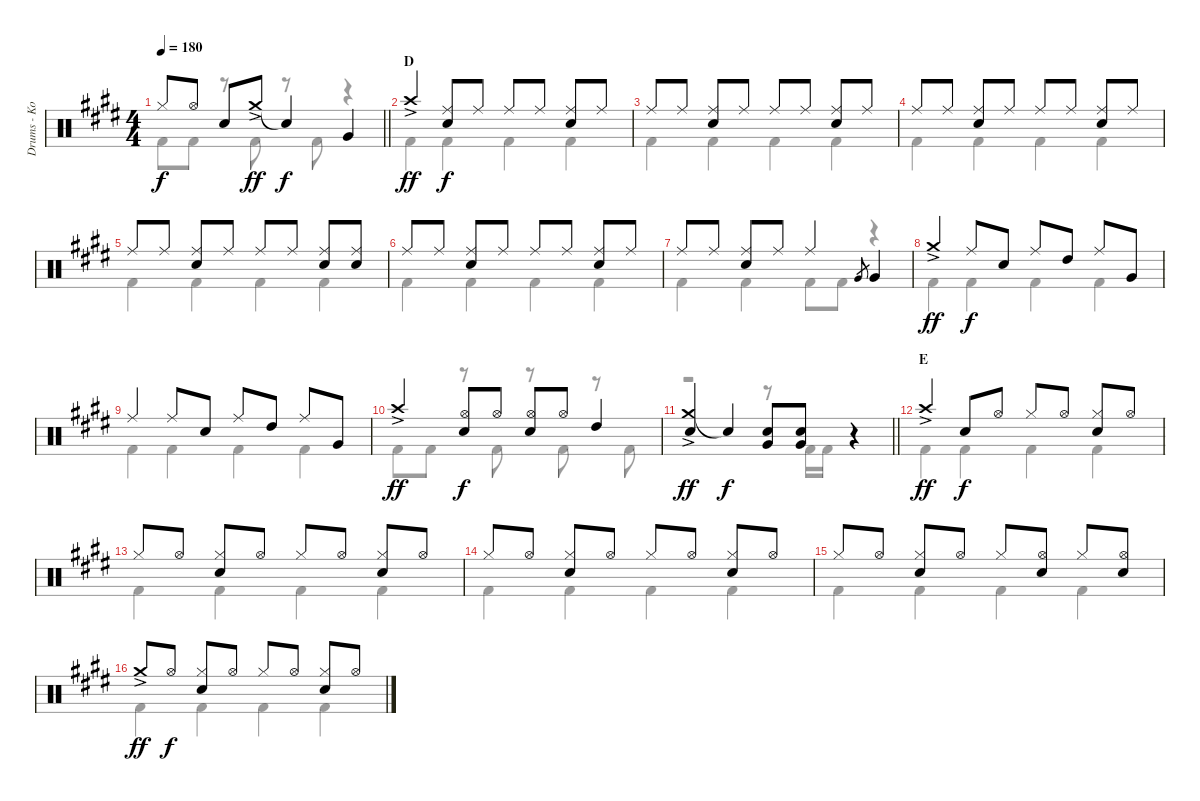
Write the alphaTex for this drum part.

\track ("Drums - Ko-Ki" "Drums - Ko") {instrument percussion}
\staff {score}
\articulation defaults
\voice
\ts (4 4)
\tempo 180
\clef neutral
\barLineRight lightlight
\ks e "Hi-Hat (closed)".8{dy f} "Hi-Hat (open)".8 "Snare (hit) 2".8 "Crash medium (hit)"{ac}.8{dy ff} "Snare (hit)"{t}.4{dy f} "Very Low Tom (hit)".4
|
\section ("" "D")
"Crash high (hit)"{ac}.4{dy ff} ("Ride (middle)" "Snare (hit) 2").8{dy f} "Ride (middle)".8 "Ride (middle)".8 "Ride (middle)".8 ("Ride (middle)" "Snare (hit) 2").8 "Ride (middle)".8 |
"Ride (middle)".8 "Ride (middle)".8 ("Ride (middle)" "Snare (hit) 2").8 "Ride (middle)".8 "Ride (middle)".8 "Ride (middle)".8 ("Ride (middle)" "Snare (hit) 2").8 "Ride (middle)".8 |
"Ride (middle)".8 "Ride (middle)".8 ("Ride (middle)" "Snare (hit) 2").8 "Ride (middle)".8 "Ride (middle)".8 "Ride (middle)".8 ("Ride (middle)" "Snare (hit) 2").8 "Ride (middle)".8 |
"Ride (middle)".8 "Ride (middle)".8 ("Ride (middle)" "Snare (hit) 2").8 "Ride (middle)".8 "Ride (middle)".8 "Ride (middle)".8 ("Ride (middle)" "Snare (hit) 2").8 ("Ride (middle)" "Snare (hit) 2").8 |
"Ride (middle)".8 "Ride (middle)".8 ("Ride (middle)" "Snare (hit) 2").8 "Ride (middle)".8 "Ride (middle)".8 "Ride (middle)".8 ("Ride (middle)" "Snare (hit) 2").8 "Ride (middle)".8 |
"Ride (middle)".8 "Ride (middle)".8 ("Ride (middle)" "Snare (hit) 2").8 "Ride (middle)".8 "Ride (middle)".4 "Very Low Tom (hit)".8{gr} "Very Low Tom (hit)".4 |
"Crash medium (hit)"{ac}.4{dy ff} "Ride (middle)".8{dy f} "Snare (hit) 2".8 "Ride (middle)".8 "High Tom (hit)".8 "Ride (middle)".8 "Very Low Tom (hit)".8 |
"Ride (middle)".4 "Ride (middle)".8 "Snare (hit) 2".8 "Ride (middle)".8 "High Tom (hit)".8 "Ride (middle)".8 "Very Low Tom (hit)".8 |
"Crash high (hit)"{ac}.4{dy ff} ("Hi-Hat (open)" "Snare (hit) 2").8{dy f} "Hi-Hat (open)".8 ("Hi-Hat (open)" "Snare (hit) 2").8 "Hi-Hat (open)".8 "High Tom (hit)".4 |
\barLineRight lightlight
("Crash medium (hit)"{ac} "Snare (hit) 2").4{dy ff} "Snare (hit)"{t}.4{dy f} ("Very Low Tom (hit)" "Snare (hit) 2").8 ("Very Low Tom (hit)" "Snare (hit) 2").8 r.4 |
\section ("" "E")
"Crash high (hit)"{ac}.4{dy ff} "Snare (hit) 2".8{dy f} "Hi-Hat (open)".8 "Hi-Hat (closed)".8 "Hi-Hat (open)".8 ("Hi-Hat (closed)" "Snare (hit) 2").8 "Hi-Hat (open)".8 |
"Hi-Hat (closed)".8 "Hi-Hat (open)".8 ("Hi-Hat (closed)" "Snare (hit) 2").8 "Hi-Hat (open)".8 "Hi-Hat (closed)".8 "Hi-Hat (open)".8 ("Hi-Hat (closed)" "Snare (hit) 2").8 "Hi-Hat (open)".8 |
"Hi-Hat (closed)".8 "Hi-Hat (open)".8 ("Hi-Hat (closed)" "Snare (hit) 2").8 "Hi-Hat (open)".8 "Hi-Hat (closed)".8 "Hi-Hat (open)".8 ("Hi-Hat (closed)" "Snare (hit) 2").8 "Hi-Hat (open)".8 |
"Hi-Hat (closed)".8 "Hi-Hat (open)".8 ("Hi-Hat (closed)" "Snare (hit) 2").8 "Hi-Hat (open)".8 "Hi-Hat (closed)".8 ("Hi-Hat (open)" "Snare (hit) 2").8 "Hi-Hat (closed)".8 ("Hi-Hat (open)" "Snare (hit) 2").8 |
"Crash medium (hit)"{ac}.8{dy ff} "Hi-Hat (open)".8{dy f} ("Hi-Hat (closed)" "Snare (hit) 2").8 "Hi-Hat (open)".8 "Hi-Hat (closed)".8 "Hi-Hat (open)".8 ("Hi-Hat (closed)" "Snare (hit) 2").8 "Hi-Hat (open)".8
\voice
\clef neutral
\ottava regular
\simile none
\barLineRight lightlight
\ks e "Kick (hit) 2".8{dy f} "Kick (hit) 2".8
r.8 "Kick (hit) 2".8 r.8 "Kick (hit) 2".8 r.4 |
"Kick (hit) 2".4 "Kick (hit) 2".4 "Kick (hit) 2".4 "Kick (hit) 2".4 |
"Kick (hit) 2".4 "Kick (hit) 2".4 "Kick (hit) 2".4 "Kick (hit) 2".4 |
"Kick (hit) 2".4 "Kick (hit) 2".4 "Kick (hit) 2".4 "Kick (hit) 2".4 |
"Kick (hit) 2".4 "Kick (hit) 2".4 "Kick (hit) 2".4 "Kick (hit) 2".4 |
"Kick (hit) 2".4 "Kick (hit) 2".4 "Kick (hit) 2".4 "Kick (hit) 2".4 |
"Kick (hit) 2".4 "Kick (hit) 2".4 "Kick (hit) 2".8 "Kick (hit) 2".8 r.4 |
"Kick (hit) 2".4 "Kick (hit) 2".4 "Kick (hit) 2".4 "Kick (hit) 2".4 |
"Kick (hit) 2".4 "Kick (hit) 2".4 "Kick (hit) 2".4 "Kick (hit) 2".4 |
"Kick (hit) 2".8 "Kick (hit) 2".8 r.8 "Kick (hit) 2".8 r.8 "Kick (hit) 2".8 r.8 "Kick (hit) 2".8 |
\barLineRight lightlight
r.2 r.8 "Kick (hit) 2".16 "Kick (hit) 2".16 r.4 |
"Kick (hit) 2".4 "Kick (hit) 2".4 "Kick (hit) 2".4 "Kick (hit) 2".4 |
"Kick (hit) 2".4 "Kick (hit) 2".4 "Kick (hit) 2".4 "Kick (hit) 2".4 |
"Kick (hit) 2".4 "Kick (hit) 2".4 "Kick (hit) 2".4 "Kick (hit) 2".4 |
"Kick (hit) 2".4 "Kick (hit) 2".4 "Kick (hit) 2".4 "Kick (hit) 2".4 |
"Kick (hit) 2".4 "Kick (hit) 2".4 "Kick (hit) 2".4 "Kick (hit) 2".4
